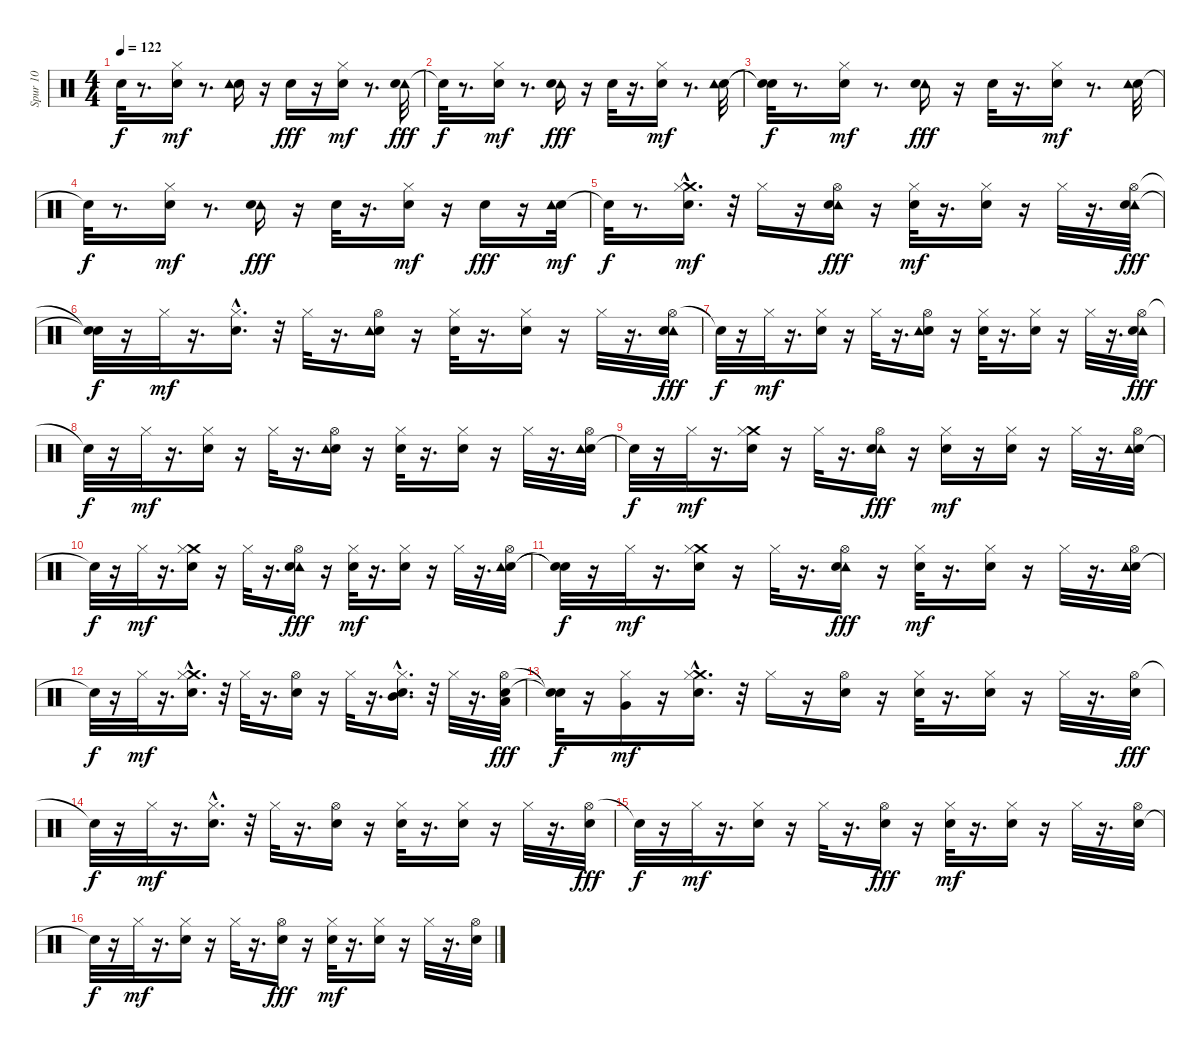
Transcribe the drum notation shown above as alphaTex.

\track ("Spur 10" "Spur 10") {instrument percussion}
\staff {score}
\articulation defaults
\ts (4 4)
\tempo 122
\clef neutral
\ks c "Snare (hit)"{t}.32{dy f}
r.8{d} ("Snare (hit)" "Hi-Hat (closed)").16{dy mf} r.8{d} ("Snare (hit) 2" "Tambourine (hit)").16 r.16 "Snare (hit)".16{dy fff} r.16 ("Snare (hit)" "Hi-Hat (closed)").16{dy mf} r.8{d} ("Tambourine (hit)" "Snare (hit) 2").32{dy fff} |
"Snare (hit)"{t}.32{dy f} r.8{d} ("Snare (hit)" "Hi-Hat (closed)").16{dy mf} r.8{d} ("Tambourine (hit)" "Snare (hit) 2").16{dy fff} r.16 "Snare (hit)".32 r.16{d} ("Snare (hit)" "Hi-Hat (closed)").16{dy mf} r.8{d} ("Snare (hit) 2" "Tambourine (hit)").32 |
("Snare (hit)"{t} "Snare (hit)"{t}).32{dy f} r.8{d} ("Snare (hit)" "Hi-Hat (closed)").16{dy mf} r.8{d} ("Tambourine (hit)" "Snare (hit) 2").16{dy fff} r.16 "Snare (hit)".32 r.16{d} ("Snare (hit)" "Hi-Hat (closed)").16{dy mf} r.8{d} ("Snare (hit) 2" "Tambourine (hit)").32 |
"Snare (hit)"{t}.32{dy f} r.8{d} ("Snare (hit)" "Hi-Hat (closed)").16{dy mf} r.8{d} ("Tambourine (hit)" "Snare (hit) 2").16{dy fff} r.16 "Snare (hit)".32 r.16{d} ("Snare (hit)" "Hi-Hat (closed)").16{dy mf} r.16 "Snare (hit)".16{dy fff} r.16 ("Snare (hit) 2" "Tambourine (hit)").32{dy mf} |
"Snare (hit)"{t}.32{dy f} r.8{d} ("Crash medium (hit)" "Snare (hit)"{hac} "Hi-Hat (closed)").16{d dy mf} r.32 "Hi-Hat (closed)".16 r.16 ("Hi-Hat (open)" "Tambourine (hit)" "Snare (hit) 2").16{dy fff} r.16 ("Snare (hit)" "Hi-Hat (closed)").32{dy mf} r.16{d} ("Snare (hit)" "Hi-Hat (closed)").16 r.16 "Hi-Hat (closed)".32 r.16{d} ("Hi-Hat (open)" "Tambourine (hit)" "Snare (hit) 2").32{dy fff} |
("Snare (hit)"{t} "Snare (hit)"{t}).32{dy f} r.16 "Hi-Hat (closed)".32{dy mf} r.16{d} ("Snare (hit)"{hac} "Hi-Hat (closed)").16{d} r.32 "Hi-Hat (closed)".32 r.16{d} ("Snare (hit) 2" "Tambourine (hit)" "Hi-Hat (open)").16 r.16 ("Snare (hit)" "Hi-Hat (closed)").32 r.16{d} ("Snare (hit)" "Hi-Hat (closed)").16 r.16 "Hi-Hat (closed)".32 r.16{d} ("Hi-Hat (open)" "Tambourine (hit)" "Snare (hit) 2").32{dy fff} |
"Snare (hit)"{t}.32{dy f} r.16 "Hi-Hat (closed)".32{dy mf} r.16{d} ("Snare (hit)" "Hi-Hat (closed)").16 r.16 "Hi-Hat (closed)".32 r.16{d} ("Snare (hit) 2" "Tambourine (hit)" "Hi-Hat (open)").16 r.16 ("Snare (hit)" "Hi-Hat (closed)").32 r.16{d} ("Snare (hit)" "Hi-Hat (closed)").16 r.16 "Hi-Hat (closed)".32 r.16{d} ("Hi-Hat (open)" "Tambourine (hit)" "Snare (hit) 2").32{dy fff} |
"Snare (hit)"{t}.32{dy f} r.16 "Hi-Hat (closed)".32{dy mf} r.16{d} ("Snare (hit)" "Hi-Hat (closed)").16 r.16 "Hi-Hat (closed)".32 r.16{d} ("Snare (hit) 2" "Tambourine (hit)" "Hi-Hat (open)").16 r.16 ("Snare (hit)" "Hi-Hat (closed)").32 r.16{d} ("Snare (hit)" "Hi-Hat (closed)").16 r.16 "Hi-Hat (closed)".32 r.16{d} ("Snare (hit) 2" "Tambourine (hit)" "Hi-Hat (open)").32 |
"Snare (hit)"{t}.32{dy f} r.16 "Hi-Hat (closed)".32{dy mf} r.16{d} ("Snare (hit)" "Crash medium (hit)" "Hi-Hat (closed)").16 r.16 "Hi-Hat (closed)".32 r.16{d} ("Hi-Hat (open)" "Tambourine (hit)" "Snare (hit) 2").16{dy fff} r.16 ("Snare (hit)" "Hi-Hat (closed)").16{dy mf} r.16 ("Snare (hit)" "Hi-Hat (closed)").16 r.16 "Hi-Hat (closed)".32 r.16{d} ("Snare (hit) 2" "Tambourine (hit)" "Hi-Hat (open)").32 |
"Snare (hit)"{t}.32{dy f} r.16 "Hi-Hat (closed)".32{dy mf} r.16{d} ("Snare (hit)" "Crash medium (hit)" "Hi-Hat (closed)").16 r.16 "Hi-Hat (closed)".32 r.16{d} ("Hi-Hat (open)" "Tambourine (hit)" "Snare (hit) 2").16{dy fff} r.16 ("Snare (hit)" "Hi-Hat (closed)").32{dy mf} r.16{d} ("Snare (hit)" "Hi-Hat (closed)").16 r.16 "Hi-Hat (closed)".32 r.16{d} ("Snare (hit) 2" "Tambourine (hit)" "Hi-Hat (open)").32 |
("Snare (hit)"{t} "Snare (hit)"{t}).32{dy f} r.16 "Hi-Hat (closed)".32{dy mf} r.16{d} ("Crash medium (hit)" "Snare (hit)" "Hi-Hat (closed)").16 r.16 "Hi-Hat (closed)".32 r.16{d} ("Hi-Hat (open)" "Tambourine (hit)" "Snare (hit) 2").16{dy fff} r.16 ("Snare (hit)" "Hi-Hat (closed)").32{dy mf} r.16{d} ("Snare (hit)" "Hi-Hat (closed)").16 r.16 "Hi-Hat (closed)".32 r.16{d} ("Snare (hit) 2" "Tambourine (hit)" "Hi-Hat (open)").32 |
"Snare (hit)"{t}.32{dy f} r.16 "Hi-Hat (closed)".32{dy mf} r.16{d} ("Crash medium (hit)" "Snare (hit)"{hac} "Hi-Hat (closed)").16{d} r.32 "Hi-Hat (closed)".32 r.16{d} ("Snare (hit) 2" "Hi-Hat (open)").16 r.16 "Hi-Hat (closed)".32 r.16{d} ("Mid Tom (hit)" "Snare (hit)"{hac} "Hi-Hat (closed)").16{d} r.32 "Hi-Hat (closed)".32 r.16{d} ("Hi-Hat (open)" "Snare (hit) 2" "Low Tom (hit)").32{dy fff} |
("Snare (hit)"{t} "Snare (hit)"{t}).32{dy f} r.16 ("Very Low Tom (hit)" "Hi-Hat (closed)").16{dy mf} r.16 ("Crash medium (hit)" "Snare (hit)"{hac} "Hi-Hat (closed)").16{d} r.32 "Hi-Hat (closed)".16 r.16 ("Snare (hit) 2" "Hi-Hat (open)").16 r.16 ("Snare (hit)" "Hi-Hat (closed)").32 r.16{d} ("Snare (hit)" "Hi-Hat (closed)").16 r.16 "Hi-Hat (closed)".32 r.16{d} ("Hi-Hat (open)" "Snare (hit) 2").32{dy fff} |
"Snare (hit)"{t}.32{dy f} r.16 "Hi-Hat (closed)".32{dy mf} r.16{d} ("Snare (hit)"{hac} "Hi-Hat (closed)").16{d} r.32 "Hi-Hat (closed)".32 r.16{d} ("Snare (hit) 2" "Hi-Hat (open)").16 r.16 ("Snare (hit)" "Hi-Hat (closed)").32 r.16{d} ("Snare (hit)" "Hi-Hat (closed)").16 r.16 "Hi-Hat (closed)".32 r.16{d} ("Hi-Hat (open)" "Snare (hit) 2").32{dy fff} |
"Snare (hit)"{t}.32{dy f} r.16 "Hi-Hat (closed)".32{dy mf} r.16{d} ("Snare (hit)" "Hi-Hat (closed)").16 r.16 "Hi-Hat (closed)".32 r.16{d} ("Hi-Hat (open)" "Snare (hit) 2").16{dy fff} r.16 ("Snare (hit)" "Hi-Hat (closed)").32{dy mf} r.16{d} ("Snare (hit)" "Hi-Hat (closed)").16 r.16 "Hi-Hat (closed)".32 r.16{d} ("Snare (hit) 2" "Hi-Hat (open)").32 |
"Snare (hit)"{t}.32{dy f} r.16 "Hi-Hat (closed)".32{dy mf} r.16{d} ("Snare (hit)" "Hi-Hat (closed)").16 r.16 "Hi-Hat (closed)".32 r.16{d} ("Hi-Hat (open)" "Snare (hit) 2").16{dy fff} r.16 ("Snare (hit)" "Hi-Hat (closed)").32{dy mf} r.16{d} ("Snare (hit)" "Hi-Hat (closed)").16 r.16 "Hi-Hat (closed)".32 r.16{d} ("Snare (hit) 2" "Hi-Hat (open)").32
